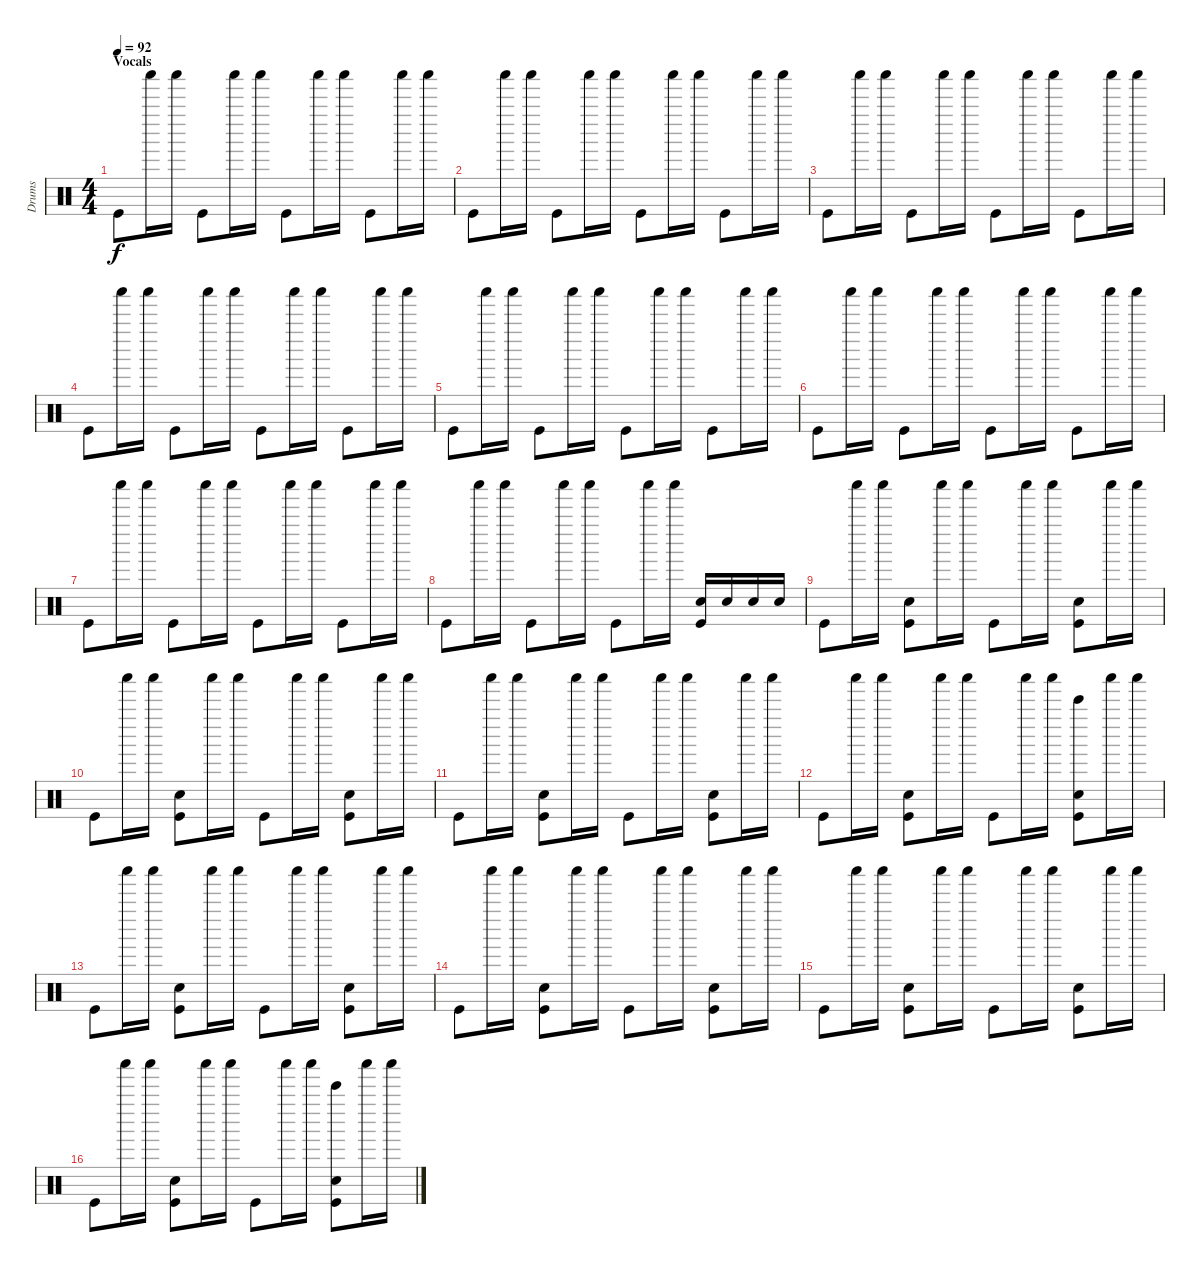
\track ("Drums" "Drums") {instrument percussion}
\staff {score}
\articulation defaults
\ts (4 4)
\section ("" "Vocals")
\tempo 92
\clef neutral
\ks c "Kick (hit)".8{dy f} "Shaker (hit)".16 "Shaker (hit)".16 "Kick (hit)".8 "Shaker (hit)".16 "Shaker (hit)".16 "Kick (hit)".8 "Shaker (hit)".16 "Shaker (hit)".16 "Kick (hit)".8 "Shaker (hit)".16 "Shaker (hit)".16
|
"Kick (hit)".8 "Shaker (hit)".16 "Shaker (hit)".16 "Kick (hit)".8 "Shaker (hit)".16 "Shaker (hit)".16 "Kick (hit)".8 "Shaker (hit)".16 "Shaker (hit)".16 "Kick (hit)".8 "Shaker (hit)".16 "Shaker (hit)".16 |
"Kick (hit)".8 "Shaker (hit)".16 "Shaker (hit)".16 "Kick (hit)".8 "Shaker (hit)".16 "Shaker (hit)".16 "Kick (hit)".8 "Shaker (hit)".16 "Shaker (hit)".16 "Kick (hit)".8 "Shaker (hit)".16 "Shaker (hit)".16 |
"Kick (hit)".8 "Shaker (hit)".16 "Shaker (hit)".16 "Kick (hit)".8 "Shaker (hit)".16 "Shaker (hit)".16 "Kick (hit)".8 "Shaker (hit)".16 "Shaker (hit)".16 "Kick (hit)".8 "Shaker (hit)".16 "Shaker (hit)".16 |
"Kick (hit)".8 "Shaker (hit)".16 "Shaker (hit)".16 "Kick (hit)".8 "Shaker (hit)".16 "Shaker (hit)".16 "Kick (hit)".8 "Shaker (hit)".16 "Shaker (hit)".16 "Kick (hit)".8 "Shaker (hit)".16 "Shaker (hit)".16 |
"Kick (hit)".8 "Shaker (hit)".16 "Shaker (hit)".16 "Kick (hit)".8 "Shaker (hit)".16 "Shaker (hit)".16 "Kick (hit)".8 "Shaker (hit)".16 "Shaker (hit)".16 "Kick (hit)".8 "Shaker (hit)".16 "Shaker (hit)".16 |
"Kick (hit)".8 "Shaker (hit)".16 "Shaker (hit)".16 "Kick (hit)".8 "Shaker (hit)".16 "Shaker (hit)".16 "Kick (hit)".8 "Shaker (hit)".16 "Shaker (hit)".16 "Kick (hit)".8 "Shaker (hit)".16 "Shaker (hit)".16 |
"Kick (hit)".8 "Shaker (hit)".16 "Shaker (hit)".16 "Kick (hit)".8 "Shaker (hit)".16 "Shaker (hit)".16 "Kick (hit)".8 "Shaker (hit)".16 "Shaker (hit)".16 ("Snare (hit) 2" "Kick (hit)").16 "Snare (hit) 2".16 "Snare (hit) 2".16 "Snare (hit) 2".16 |
"Kick (hit)".8 "Shaker (hit)".16 "Shaker (hit)".16 ("Snare (hit) 2" "Kick (hit)").8 "Shaker (hit)".16 "Shaker (hit)".16 "Kick (hit)".8 "Shaker (hit)".16 "Shaker (hit)".16 ("Snare (hit) 2" "Kick (hit)").8 "Shaker (hit)".16 "Shaker (hit)".16 |
"Kick (hit)".8 "Shaker (hit)".16 "Shaker (hit)".16 ("Snare (hit) 2" "Kick (hit)").8 "Shaker (hit)".16 "Shaker (hit)".16 "Kick (hit)".8 "Shaker (hit)".16 "Shaker (hit)".16 ("Snare (hit) 2" "Kick (hit)").8 "Shaker (hit)".16 "Shaker (hit)".16 |
"Kick (hit)".8 "Shaker (hit)".16 "Shaker (hit)".16 ("Snare (hit) 2" "Kick (hit)").8 "Shaker (hit)".16 "Shaker (hit)".16 "Kick (hit)".8 "Shaker (hit)".16 "Shaker (hit)".16 ("Snare (hit) 2" "Kick (hit)").8 "Shaker (hit)".16 "Shaker (hit)".16 |
"Kick (hit)".8 "Shaker (hit)".16 "Shaker (hit)".16 ("Snare (hit) 2" "Kick (hit)").8 "Shaker (hit)".16 "Shaker (hit)".16 "Kick (hit)".8 "Shaker (hit)".16 "Shaker (hit)".16 ("Snare (hit) 2" "Bell Tree (hit)" "Kick (hit)").8 "Shaker (hit)".16 "Shaker (hit)".16 |
"Kick (hit)".8 "Shaker (hit)".16 "Shaker (hit)".16 ("Snare (hit) 2" "Kick (hit)").8 "Shaker (hit)".16 "Shaker (hit)".16 "Kick (hit)".8 "Shaker (hit)".16 "Shaker (hit)".16 ("Snare (hit) 2" "Kick (hit)").8 "Shaker (hit)".16 "Shaker (hit)".16 |
"Kick (hit)".8 "Shaker (hit)".16 "Shaker (hit)".16 ("Snare (hit) 2" "Kick (hit)").8 "Shaker (hit)".16 "Shaker (hit)".16 "Kick (hit)".8 "Shaker (hit)".16 "Shaker (hit)".16 ("Snare (hit) 2" "Kick (hit)").8 "Shaker (hit)".16 "Shaker (hit)".16 |
"Kick (hit)".8 "Shaker (hit)".16 "Shaker (hit)".16 ("Snare (hit) 2" "Kick (hit)").8 "Shaker (hit)".16 "Shaker (hit)".16 "Kick (hit)".8 "Shaker (hit)".16 "Shaker (hit)".16 ("Snare (hit) 2" "Kick (hit)").8 "Shaker (hit)".16 "Shaker (hit)".16 |
"Kick (hit)".8 "Shaker (hit)".16 "Shaker (hit)".16 ("Snare (hit) 2" "Kick (hit)").8 "Shaker (hit)".16 "Shaker (hit)".16 "Kick (hit)".8 "Shaker (hit)".16 "Shaker (hit)".16 ("Snare (hit) 2" "Bell Tree (hit)" "Kick (hit)").8 "Shaker (hit)".16 "Shaker (hit)".16
